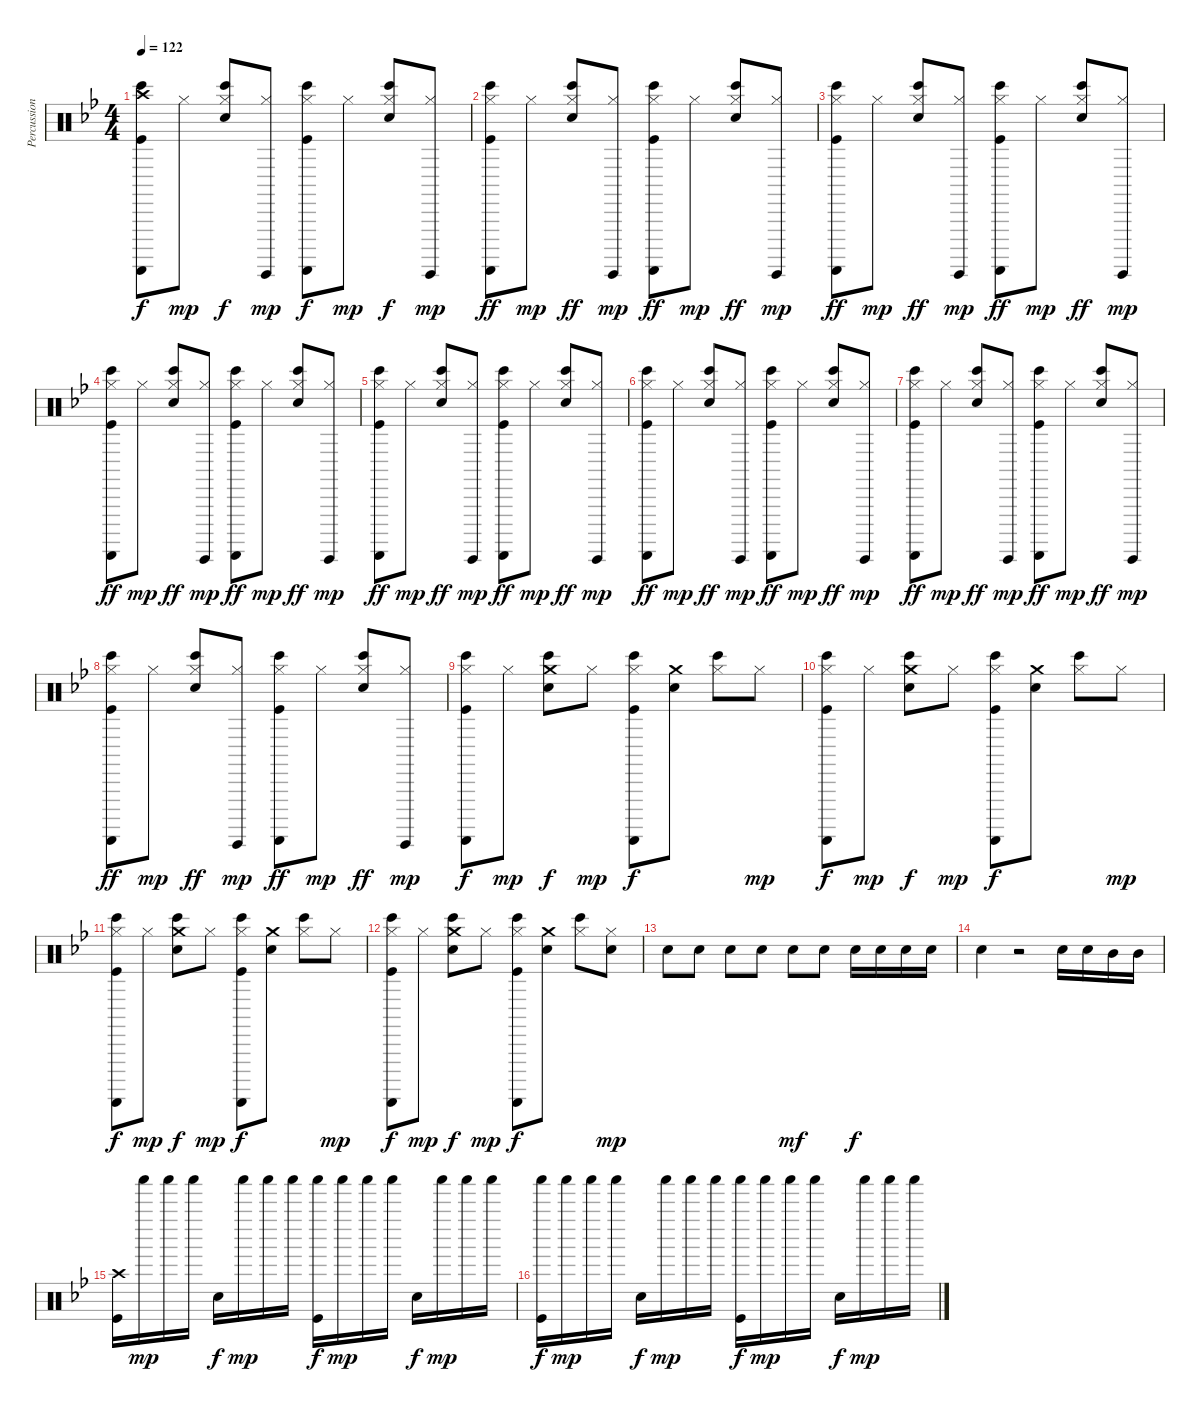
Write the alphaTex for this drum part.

\track ("Percussions" "Percussion") {instrument percussion}
\staff {score}
\articulation defaults
\ts (4 4)
\tempo 122
\clef neutral
\ks bb
("Crash high (hit)" "Bongo High (hit)" "Guiro (scrap-return)" "Kick (hit)").8{dy f} "Hi-Hat (closed)".8{dy mp} ("Hi-Hat (closed)" "Bongo High (hit)" "Snare (hit) 2").8{dy f} ("Hi-Hat (closed)" "Guiro (hit)").8{dy mp} ("Hi-Hat (closed)" "Bongo High (hit)" "Guiro (scrap-return)" "Kick (hit)").8{dy f} "Hi-Hat (closed)".8{dy mp} ("Hi-Hat (closed)" "Bongo High (hit)" "Snare (hit) 2").8{dy f} ("Hi-Hat (closed)" "Guiro (hit)").8{dy mp} |
("Hi-Hat (closed)" "Bongo High (hit)" "Guiro (scrap-return)" "Kick (hit)").8{dy ff} "Hi-Hat (closed)".8{dy mp} ("Hi-Hat (closed)" "Bongo High (hit)" "Snare (hit) 2").8{dy ff} ("Hi-Hat (closed)" "Guiro (hit)").8{dy mp} ("Hi-Hat (closed)" "Bongo High (hit)" "Guiro (scrap-return)" "Kick (hit)").8{dy ff} "Hi-Hat (closed)".8{dy mp} ("Hi-Hat (closed)" "Bongo High (hit)" "Snare (hit) 2").8{dy ff} ("Hi-Hat (closed)" "Guiro (hit)").8{dy mp} |
("Hi-Hat (closed)" "Bongo High (hit)" "Guiro (scrap-return)" "Kick (hit)").8{dy ff} "Hi-Hat (closed)".8{dy mp} ("Hi-Hat (closed)" "Bongo High (hit)" "Snare (hit) 2").8{dy ff} ("Hi-Hat (closed)" "Guiro (hit)").8{dy mp} ("Hi-Hat (closed)" "Bongo High (hit)" "Guiro (scrap-return)" "Kick (hit)").8{dy ff} "Hi-Hat (closed)".8{dy mp} ("Hi-Hat (closed)" "Bongo High (hit)" "Snare (hit) 2").8{dy ff} ("Hi-Hat (closed)" "Guiro (hit)").8{dy mp} |
("Hi-Hat (closed)" "Bongo High (hit)" "Guiro (scrap-return)" "Kick (hit)").8{dy ff} "Hi-Hat (closed)".8{dy mp} ("Hi-Hat (closed)" "Bongo High (hit)" "Snare (hit) 2").8{dy ff} ("Hi-Hat (closed)" "Guiro (hit)").8{dy mp} ("Hi-Hat (closed)" "Bongo High (hit)" "Guiro (scrap-return)" "Kick (hit)").8{dy ff} "Hi-Hat (closed)".8{dy mp} ("Hi-Hat (closed)" "Bongo High (hit)" "Snare (hit) 2").8{dy ff} ("Hi-Hat (closed)" "Guiro (hit)").8{dy mp} |
("Hi-Hat (closed)" "Bongo High (hit)" "Guiro (scrap-return)" "Kick (hit)").8{dy ff} "Hi-Hat (closed)".8{dy mp} ("Hi-Hat (closed)" "Bongo High (hit)" "Snare (hit) 2").8{dy ff} ("Hi-Hat (closed)" "Guiro (hit)").8{dy mp} ("Hi-Hat (closed)" "Bongo High (hit)" "Guiro (scrap-return)" "Kick (hit)").8{dy ff} "Hi-Hat (closed)".8{dy mp} ("Hi-Hat (closed)" "Bongo High (hit)" "Snare (hit) 2").8{dy ff} ("Hi-Hat (closed)" "Guiro (hit)").8{dy mp} |
("Hi-Hat (closed)" "Bongo High (hit)" "Guiro (scrap-return)" "Kick (hit)").8{dy ff} "Hi-Hat (closed)".8{dy mp} ("Hi-Hat (closed)" "Bongo High (hit)" "Snare (hit) 2").8{dy ff} ("Hi-Hat (closed)" "Guiro (hit)").8{dy mp} ("Hi-Hat (closed)" "Bongo High (hit)" "Guiro (scrap-return)" "Kick (hit)").8{dy ff} "Hi-Hat (closed)".8{dy mp} ("Hi-Hat (closed)" "Bongo High (hit)" "Snare (hit) 2").8{dy ff} ("Hi-Hat (closed)" "Guiro (hit)").8{dy mp} |
("Hi-Hat (closed)" "Bongo High (hit)" "Guiro (scrap-return)" "Kick (hit)").8{dy ff} "Hi-Hat (closed)".8{dy mp} ("Hi-Hat (closed)" "Bongo High (hit)" "Snare (hit) 2").8{dy ff} ("Hi-Hat (closed)" "Guiro (hit)").8{dy mp} ("Hi-Hat (closed)" "Bongo High (hit)" "Guiro (scrap-return)" "Kick (hit)").8{dy ff} "Hi-Hat (closed)".8{dy mp} ("Hi-Hat (closed)" "Bongo High (hit)" "Snare (hit) 2").8{dy ff} ("Hi-Hat (closed)" "Guiro (hit)").8{dy mp} |
("Hi-Hat (closed)" "Bongo High (hit)" "Guiro (scrap-return)" "Kick (hit)").8{dy ff} "Hi-Hat (closed)".8{dy mp} ("Hi-Hat (closed)" "Bongo High (hit)" "Snare (hit) 2").8{dy ff} ("Hi-Hat (closed)" "Guiro (hit)").8{dy mp} ("Hi-Hat (closed)" "Bongo High (hit)" "Guiro (scrap-return)" "Kick (hit)").8{dy ff} "Hi-Hat (closed)".8{dy mp} ("Hi-Hat (closed)" "Bongo High (hit)" "Snare (hit) 2").8{dy ff} ("Hi-Hat (closed)" "Guiro (hit)").8{dy mp} |
("Hi-Hat (closed)" "Bongo High (hit)" "Guiro (scrap-return)" "Kick (hit)").8{dy f} "Hi-Hat (closed)".8{dy mp} ("Crash medium (hit)" "Bongo High (hit)" "Snare (hit) 2").8{dy f} "Hi-Hat (closed)".8{dy mp} ("Hi-Hat (closed)" "Bongo High (hit)" "Guiro (scrap-return)" "Kick (hit)").8{dy f} ("Crash medium (hit)" "Snare (hit) 2").8 ("Hi-Hat (closed)" "Bongo High (hit)").8 "Hi-Hat (closed)".8{dy mp} |
("Hi-Hat (closed)" "Bongo High (hit)" "Guiro (scrap-return)" "Kick (hit)").8{dy f} "Hi-Hat (closed)".8{dy mp} ("Crash medium (hit)" "Bongo High (hit)" "Snare (hit) 2").8{dy f} "Hi-Hat (closed)".8{dy mp} ("Hi-Hat (closed)" "Bongo High (hit)" "Guiro (scrap-return)" "Kick (hit)").8{dy f} ("Crash medium (hit)" "Snare (hit) 2").8 ("Hi-Hat (closed)" "Bongo High (hit)").8 "Hi-Hat (closed)".8{dy mp} |
("Hi-Hat (closed)" "Bongo High (hit)" "Guiro (scrap-return)" "Kick (hit)").8{dy f} "Hi-Hat (closed)".8{dy mp} ("Crash medium (hit)" "Bongo High (hit)" "Snare (hit) 2").8{dy f} "Hi-Hat (closed)".8{dy mp} ("Hi-Hat (closed)" "Bongo High (hit)" "Guiro (scrap-return)" "Kick (hit)").8{dy f} ("Crash medium (hit)" "Snare (hit) 2").8 ("Hi-Hat (closed)" "Bongo High (hit)").8 "Hi-Hat (closed)".8{dy mp} |
("Hi-Hat (closed)" "Bongo High (hit)" "Guiro (scrap-return)" "Kick (hit)").8{dy f} "Hi-Hat (closed)".8{dy mp} ("Crash medium (hit)" "Bongo High (hit)" "Snare (hit) 2").8{dy f} "Hi-Hat (closed)".8{dy mp} ("Hi-Hat (closed)" "Bongo High (hit)" "Guiro (scrap-return)" "Kick (hit)").8{dy f} ("Crash medium (hit)" "Snare (hit) 2").8 ("Hi-Hat (closed)" "Bongo High (hit)").8 ("Hi-Hat (closed)" "Snare (hit) 2").8{dy mp} |
"Snare (hit) 2".8 "Snare (hit) 2".8 "Snare (hit) 2".8 "Snare (hit) 2".8 "Snare (hit) 2".8{dy mf} "Snare (hit) 2".8 "Snare (hit) 2".16{dy f} "Snare (hit) 2".16 "Snare (hit) 2".16 "Snare (hit) 2".16 |
"Snare (hit) 2".4 r.2 "Snare (hit) 2".16 "Snare (hit) 2".16 "Mid Tom (hit)".16 "Mid Tom (hit)".16 |
("Crash high (hit)" "Kick (hit)").16 "Shaker (hit)".16{dy mp} "Shaker (hit)".16 "Shaker (hit)".16 "Snare (hit) 2".16{dy f} "Shaker (hit)".16{dy mp} "Shaker (hit)".16 "Shaker (hit)".16 ("Shaker (hit)" "Kick (hit)").16{dy f} "Shaker (hit)".16{dy mp} "Shaker (hit)".16 "Shaker (hit)".16 "Snare (hit) 2".16{dy f} "Shaker (hit)".16{dy mp} "Shaker (hit)".16 "Shaker (hit)".16 |
("Shaker (hit)" "Kick (hit)").16{dy f} "Shaker (hit)".16{dy mp} "Shaker (hit)".16 "Shaker (hit)".16 "Snare (hit) 2".16{dy f} "Shaker (hit)".16{dy mp} "Shaker (hit)".16 "Shaker (hit)".16 ("Shaker (hit)" "Kick (hit)").16{dy f} "Shaker (hit)".16{dy mp} "Shaker (hit)".16 "Shaker (hit)".16 "Snare (hit) 2".16{dy f} "Shaker (hit)".16{dy mp} "Shaker (hit)".16 "Shaker (hit)".16
